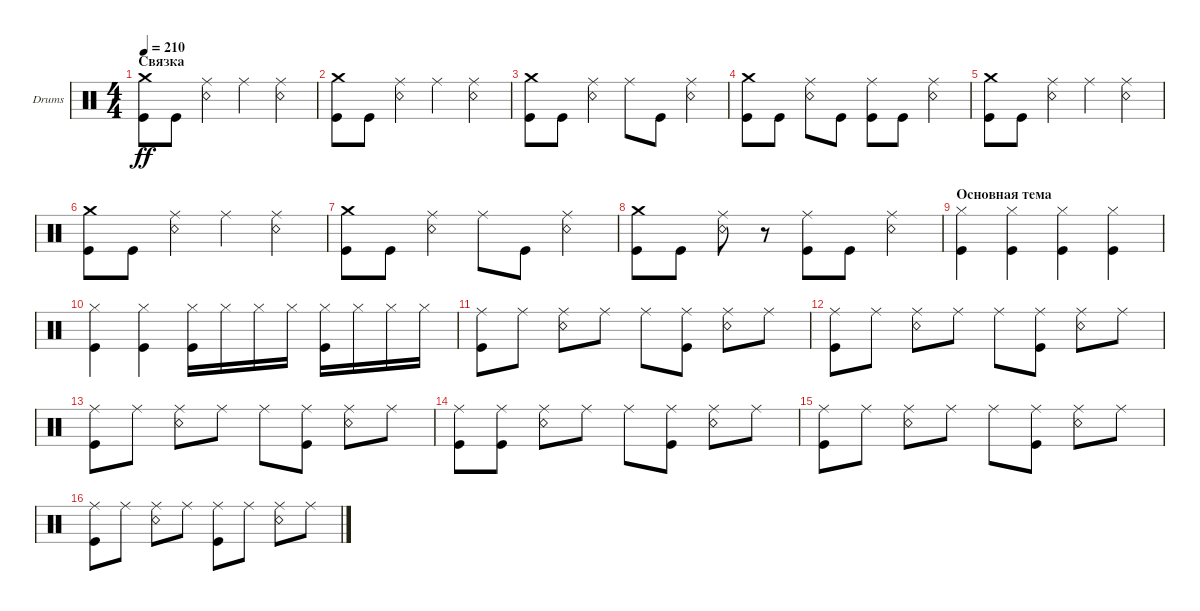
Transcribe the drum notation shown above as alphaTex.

\defaultSystemsLayout 4
\bracketExtendMode groupsimilarinstruments
\firstSystemTrackNameOrientation horizontal
\otherSystemsTrackNameOrientation horizontal
\track ("Drumkit" "Drums") {instrument percussion}
\staff {score}
\articulation defaults
\ts (4 4)
\section ("" "Связка")
\tempo 210
\clef neutral
\ks c
("Kick (hit)" "Crash medium (hit)").8{dy ff} "Kick (hit)".8 ("Snare (rim shot)" "Ride (middle)").4 "Ride (middle)".4 ("Ride (middle)" "Snare (rim shot)").4 |
("Kick (hit)" "Crash medium (hit)").8 "Kick (hit)".8 ("Snare (rim shot)" "Ride (middle)").4 "Ride (middle)".4 ("Ride (middle)" "Snare (rim shot)").4 |
("Kick (hit)" "Crash medium (hit)").8 "Kick (hit)".8 ("Snare (rim shot)" "Ride (middle)").4 "Ride (middle)".8 "Kick (hit)".8 ("Ride (middle)" "Snare (rim shot)").4 |
("Kick (hit)" "Crash medium (hit)").8 "Kick (hit)".8 ("Snare (rim shot)" "Ride (middle)").8 "Kick (hit)".8 ("Ride (middle)" "Kick (hit)").8 "Kick (hit)".8 ("Ride (middle)" "Snare (rim shot)").4 |
("Kick (hit)" "Crash medium (hit)").8 "Kick (hit)".8 ("Snare (rim shot)" "Ride (middle)").4 "Ride (middle)".4 ("Ride (middle)" "Snare (rim shot)").4 |
("Kick (hit)" "Crash medium (hit)").8 "Kick (hit)".8 ("Snare (rim shot)" "Ride (middle)").4 "Ride (middle)".4 ("Ride (middle)" "Snare (rim shot)").4 |
("Kick (hit)" "Crash medium (hit)").8 "Kick (hit)".8 ("Snare (rim shot)" "Ride (middle)").4 "Ride (middle)".8 "Kick (hit)".8 ("Ride (middle)" "Snare (rim shot)").4 |
("Kick (hit)" "Crash medium (hit)").8 "Kick (hit)".8 ("Snare (rim shot)" "Ride (middle)").8 r.8 ("Ride (middle)" "Kick (hit)").8 "Kick (hit)".8 ("Ride (middle)" "Snare (rim shot)").4 |
\section ("" "Основная тема")
("Kick (hit)" "Hi-Hat (closed)").4 ("Kick (hit)" "Hi-Hat (closed)").4 ("Kick (hit)" "Hi-Hat (closed)").4 ("Kick (hit)" "Hi-Hat (closed)").4 |
("Kick (hit)" "Hi-Hat (closed)").4 ("Kick (hit)" "Hi-Hat (closed)").4 ("Kick (hit)" "Hi-Hat (closed)").16 "Hi-Hat (closed)".16 "Hi-Hat (closed)".16 "Hi-Hat (closed)".16 ("Kick (hit)" "Hi-Hat (closed)").16 "Hi-Hat (closed)".16 "Hi-Hat (closed)".16 "Hi-Hat (closed)".16 |
("Kick (hit)" "Ride (middle)").8 "Ride (middle)".8 ("Snare (rim shot)" "Ride (middle)").8 "Ride (middle)".8 "Ride (middle)".8 ("Ride (middle)" "Kick (hit)").8 ("Ride (middle)" "Snare (rim shot)").8 "Ride (middle)".8 |
("Kick (hit)" "Ride (middle)").8 "Ride (middle)".8 ("Snare (rim shot)" "Ride (middle)").8 "Ride (middle)".8 "Ride (middle)".8 ("Ride (middle)" "Kick (hit)").8 ("Ride (middle)" "Snare (rim shot)").8 "Ride (middle)".8 |
("Kick (hit)" "Ride (middle)").8 "Ride (middle)".8 ("Snare (rim shot)" "Ride (middle)").8 "Ride (middle)".8 "Ride (middle)".8 ("Ride (middle)" "Kick (hit)").8 ("Ride (middle)" "Snare (rim shot)").8 "Ride (middle)".8 |
("Kick (hit)" "Ride (middle)").8 ("Ride (middle)" "Kick (hit)").8 ("Snare (rim shot)" "Ride (middle)").8 "Ride (middle)".8 "Ride (middle)".8 ("Ride (middle)" "Kick (hit)").8 ("Ride (middle)" "Snare (rim shot)").8 "Ride (middle)".8 |
("Kick (hit)" "Ride (middle)").8 "Ride (middle)".8 ("Snare (rim shot)" "Ride (middle)").8 "Ride (middle)".8 "Ride (middle)".8 ("Ride (middle)" "Kick (hit)").8 ("Ride (middle)" "Snare (rim shot)").8 "Ride (middle)".8 |
("Kick (hit)" "Ride (middle)").8 "Ride (middle)".8 ("Snare (rim shot)" "Ride (middle)").8 "Ride (middle)".8 ("Ride (middle)" "Kick (hit)").8 "Ride (middle)".8 ("Ride (middle)" "Snare (rim shot)").8 "Ride (middle)".8
